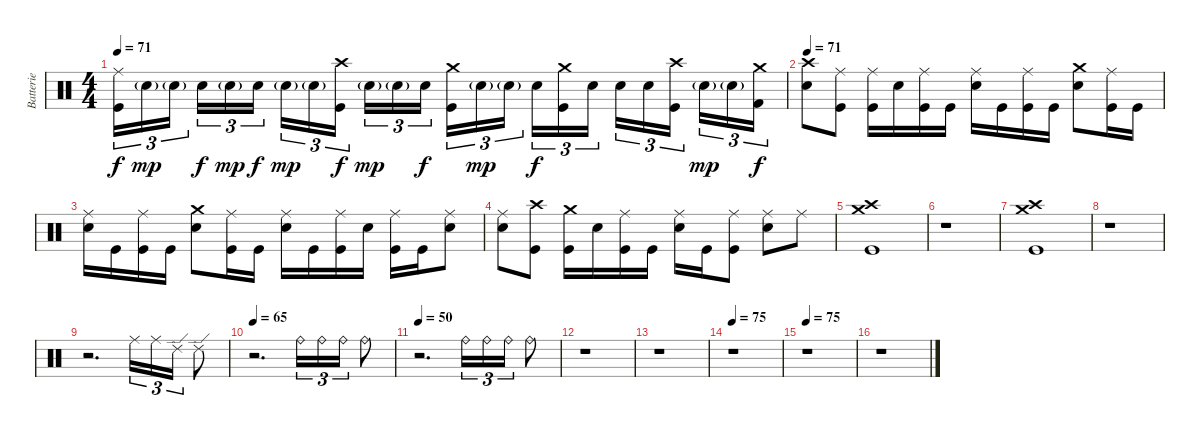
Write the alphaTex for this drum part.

\track ("Batterie" "Batterie") {instrument percussion}
\staff {score}
\articulation defaults
\ts (4 4)
\tempo 71
\clef neutral
\ks c
("Ride (middle)" "Kick (hit)").16{tu (3 2) dy f} "Electric Snare (hit)"{g}.16{tu (3 2) dy mp} "Electric Snare (hit)"{g}.16{tu (3 2)} "Electric Snare (hit)".16{tu (3 2) dy f} "Electric Snare (hit)"{g}.16{tu (3 2) dy mp} "Electric Snare (hit)".16{tu (3 2) dy f} "Electric Snare (hit)"{g}.16{tu (3 2) dy mp} "Electric Snare (hit)"{g}.16{tu (3 2)} ("Crash high (hit)" "Kick (hit)").16{tu (3 2) dy f} "Electric Snare (hit)"{g}.16{tu (3 2) dy mp} "Electric Snare (hit)"{g}.16{tu (3 2)} "Electric Snare (hit)".16{tu (3 2) dy f} ("Crash medium (hit)" "Kick (hit)").16{tu (3 2)} "Electric Snare (hit)"{g}.16{tu (3 2) dy mp} "Electric Snare (hit)"{g}.16{tu (3 2)} "Electric Snare (hit)".16{tu (3 2) dy f} ("Crash medium (hit)" "Kick (hit)").16{tu (3 2)} "Electric Snare (hit)".16{tu (3 2)} "Electric Snare (hit)".16{tu (3 2)} "Electric Snare (hit)".16{tu (3 2)} ("Crash high (hit)" "Kick (hit)").16{tu (3 2)} "Electric Snare (hit)"{g}.16{tu (3 2) dy mp} "Electric Snare (hit)"{g}.16{tu (3 2)} ("Crash medium (hit)" "Kick (hit) 2").16{tu (3 2) dy f} |
\tempo 68
\tempo 71
("Crash high (hit)" "Electric Snare (hit)").8 ("Ride (middle)" "Kick (hit)").8 ("Ride (middle)" "Kick (hit)").16 "Electric Snare (hit)".16 ("Ride (middle)" "Kick (hit)").16 "Kick (hit)".16 ("Ride (middle)" "Electric Snare (hit)").16 "Kick (hit)".16 ("Ride (middle)" "Kick (hit)").16 "Kick (hit)".16 ("Crash medium (hit)" "Electric Snare (hit)").8 ("Ride (middle)" "Kick (hit)").16 "Kick (hit)".16 |
("Ride (middle)" "Electric Snare (hit)").16 "Kick (hit)".16 ("Ride (middle)" "Kick (hit)").16 "Kick (hit)".16 ("Crash medium (hit)" "Electric Snare (hit)").8 ("Ride (middle)" "Kick (hit)").16 "Kick (hit)".16 ("Ride (middle)" "Electric Snare (hit)").16 "Kick (hit)".16 ("Ride (middle)" "Kick (hit)").16 "Electric Snare (hit)".16 ("Ride (middle)" "Kick (hit)").16 "Kick (hit)".16 ("Ride (middle)" "Electric Snare (hit)").8 |
("Ride (middle)" "Electric Snare (hit)").8 ("Crash high (hit)" "Kick (hit)").8 ("Crash medium (hit)" "Kick (hit)").16 "Electric Snare (hit)".16 ("Ride (middle)" "Kick (hit)").16 "Kick (hit)".16 ("Ride (middle)" "Electric Snare (hit)").16 "Kick (hit)".16 ("Ride (middle)" "Kick (hit)").8 ("Ride (middle)" "Electric Snare (hit)").8 "Ride (middle)".8 |
("Crash high (hit)" "Crash medium (hit)" "Kick (hit)").1 |
r.1 |
("Crash high (hit)" "Crash medium (hit)" "Kick (hit)").1 |
r.1 |
r.2{d} "Ride (middle)".16{tu (3 2)} "Ride (middle)".16{tu (3 2)} "Ride (edge) 2".16{tu (3 2)} "Ride (edge) 2".8 |
\tempo 65
r.2{d} "Ride (bell)".16{tu (3 2)} "Ride (bell)".16{tu (3 2)} "Ride (bell)".16{tu (3 2)} "Ride (bell)".8 |
\tempo 50
r.2{d} "Ride (bell)".16{tu (3 2)} "Ride (bell)".16{tu (3 2)} "Ride (bell)".16{tu (3 2)} "Ride (bell)".8 |
r.1 |
r.1 |
\tempo 75
r.1 |
\tempo 75
r.1 |
r.1
